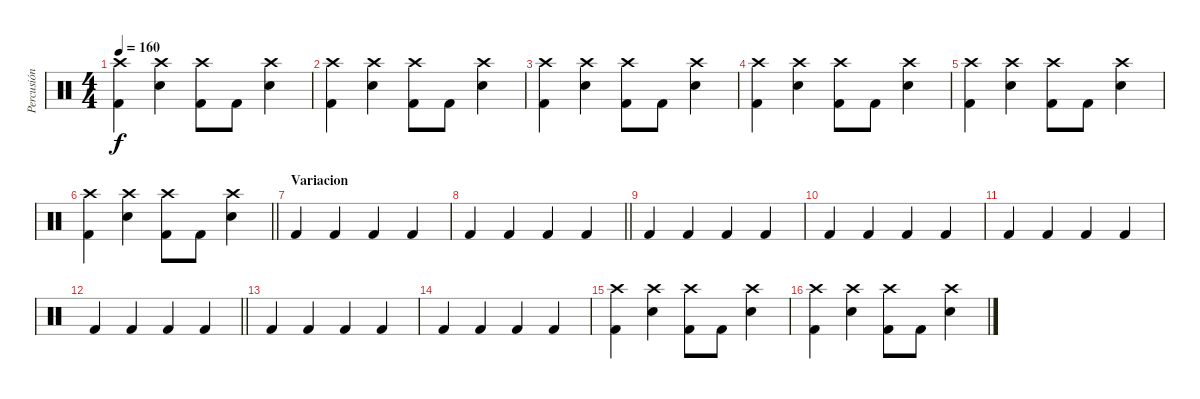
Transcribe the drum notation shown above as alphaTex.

\track ("Percusión" "Percusión") {instrument percussion}
\staff {score}
\articulation defaults
\ts (4 4)
\tempo 160
\clef neutral
\ks c
("Crash high (hit)" "Kick (hit) 2").4{dy f} ("Crash high (hit)" "Electric Snare (hit)").4 ("Crash high (hit)" "Kick (hit) 2").8 "Kick (hit) 2".8 ("Crash high (hit)" "Electric Snare (hit)").4 |
("Crash high (hit)" "Kick (hit) 2").4 ("Crash high (hit)" "Electric Snare (hit)").4 ("Crash high (hit)" "Kick (hit) 2").8 "Kick (hit) 2".8 ("Crash high (hit)" "Electric Snare (hit)").4 |
("Crash high (hit)" "Kick (hit) 2").4 ("Crash high (hit)" "Electric Snare (hit)").4 ("Crash high (hit)" "Kick (hit) 2").8 "Kick (hit) 2".8 ("Crash high (hit)" "Electric Snare (hit)").4 |
("Crash high (hit)" "Kick (hit) 2").4 ("Crash high (hit)" "Electric Snare (hit)").4 ("Crash high (hit)" "Kick (hit) 2").8 "Kick (hit) 2".8 ("Crash high (hit)" "Electric Snare (hit)").4 |
("Crash high (hit)" "Kick (hit) 2").4 ("Crash high (hit)" "Electric Snare (hit)").4 ("Crash high (hit)" "Kick (hit) 2").8 "Kick (hit) 2".8 ("Crash high (hit)" "Electric Snare (hit)").4 |
\barLineRight lightlight
("Crash high (hit)" "Kick (hit) 2").4 ("Crash high (hit)" "Electric Snare (hit)").4 ("Crash high (hit)" "Kick (hit) 2").8 "Kick (hit) 2".8 ("Crash high (hit)" "Electric Snare (hit)").4 |
\section ("" "Variacion")
"Kick (hit) 2".4 "Kick (hit) 2".4 "Kick (hit) 2".4 "Kick (hit) 2".4 |
\barLineRight lightlight "Kick (hit) 2".4 "Kick (hit) 2".4 "Kick (hit) 2".4 "Kick (hit) 2".4
|
"Kick (hit) 2".4 "Kick (hit) 2".4 "Kick (hit) 2".4 "Kick (hit) 2".4 |
"Kick (hit) 2".4 "Kick (hit) 2".4 "Kick (hit) 2".4 "Kick (hit) 2".4 |
"Kick (hit) 2".4 "Kick (hit) 2".4 "Kick (hit) 2".4 "Kick (hit) 2".4 |
\barLineRight lightlight "Kick (hit) 2".4 "Kick (hit) 2".4 "Kick (hit) 2".4 "Kick (hit) 2".4
|
"Kick (hit) 2".4 "Kick (hit) 2".4 "Kick (hit) 2".4 "Kick (hit) 2".4 |
"Kick (hit) 2".4 "Kick (hit) 2".4 "Kick (hit) 2".4 "Kick (hit) 2".4 |
("Crash high (hit)" "Kick (hit) 2").4 ("Crash high (hit)" "Electric Snare (hit)").4 ("Crash high (hit)" "Kick (hit) 2").8 "Kick (hit) 2".8 ("Crash high (hit)" "Electric Snare (hit)").4 |
("Crash high (hit)" "Kick (hit) 2").4 ("Crash high (hit)" "Electric Snare (hit)").4 ("Crash high (hit)" "Kick (hit) 2").8 "Kick (hit) 2".8 ("Crash high (hit)" "Electric Snare (hit)").4
